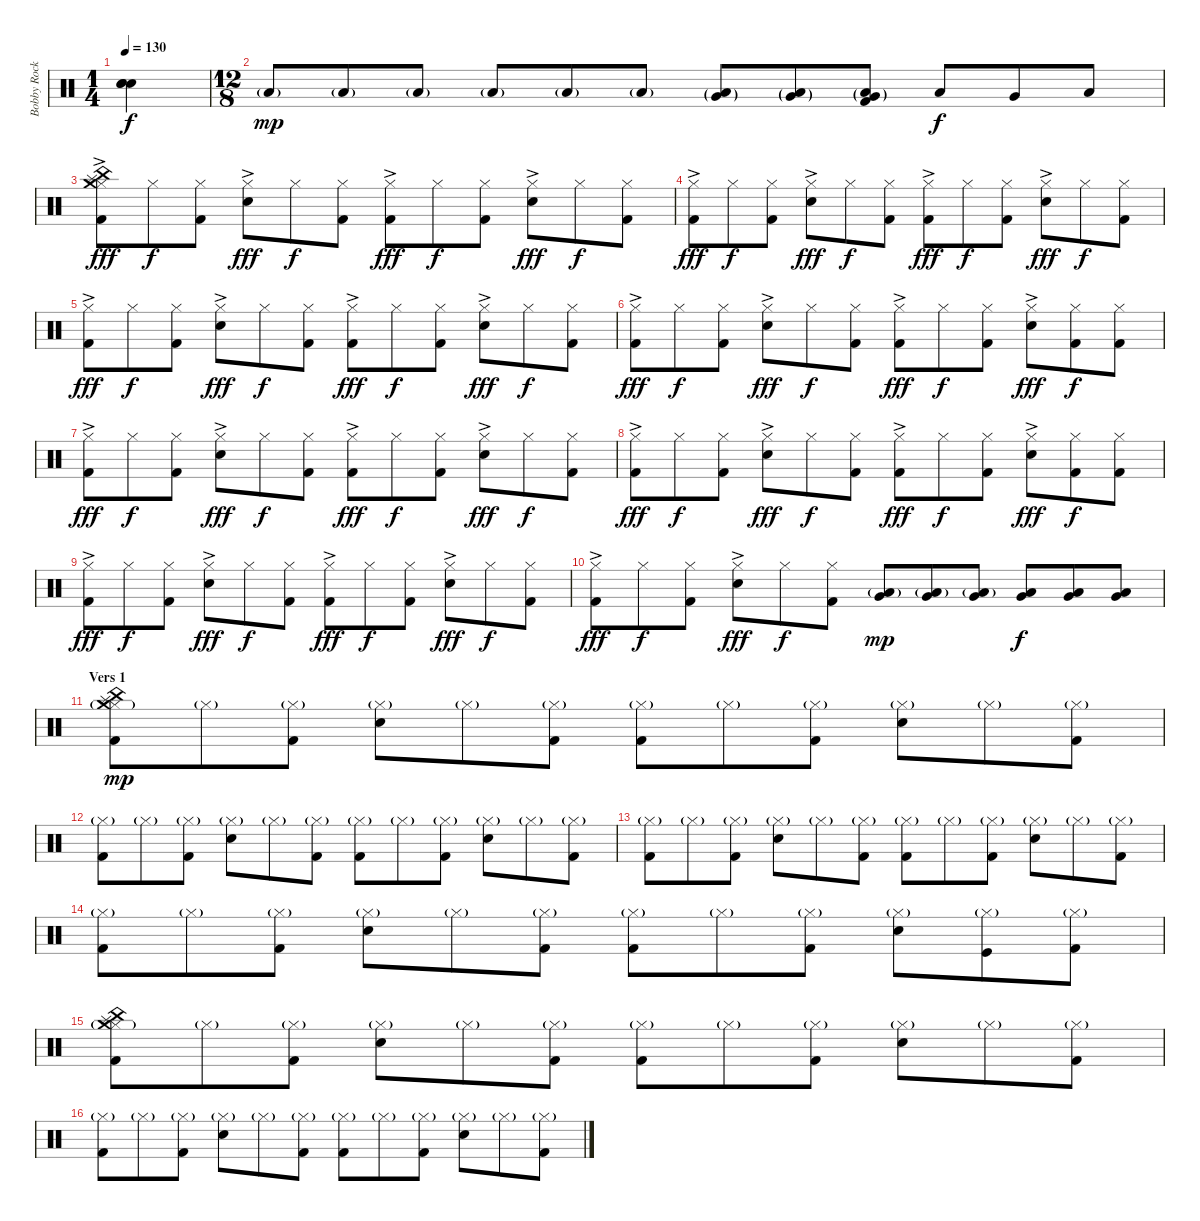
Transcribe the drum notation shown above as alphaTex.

\track ("Bobby Rock - drums" "Bobby Rock") {instrument percussion}
\staff {score}
\articulation defaults
\ts (1 4)
\tempo 130
\clef neutral
\ks c
("Snare (hit)"{x} "Snare (hit)"{x} "Snare (hit)"{x}).4{dy f volume 3} |
\ts (12 8)
"Low Floor Tom (hit)"{g}.8{dy mp volume 13} "Low Floor Tom (hit)"{g}.8 "Low Floor Tom (hit)"{g}.8 "Low Floor Tom (hit)"{g}.8 "Low Floor Tom (hit)"{g}.8 "Low Floor Tom (hit)"{g}.8 ("Very Low Tom (hit)"{g} "Low Floor Tom (hit)"{g}).8 ("Very Low Tom (hit)"{g} "Low Floor Tom (hit)"{g}).8 ("Very Low Tom (hit)"{g} "Low Floor Tom (hit)"{g} "Kick (hit) 2").8 "Low Tom (hit)".8{dy f} "Very Low Tom (hit)".8 "Low Floor Tom (hit)".8 |
("Hi-Hat (closed)"{ac} "China (hit)" "Splash (hit)" "Crash medium (hit)" "Kick (hit) 2").8{dy fff} "Hi-Hat (closed)".8{dy f} ("Hi-Hat (closed)" "Kick (hit) 2").8 ("Hi-Hat (closed)"{ac} "Snare (hit) 2").8{dy fff} "Hi-Hat (closed)".8{dy f} ("Hi-Hat (closed)" "Kick (hit) 2").8 ("Hi-Hat (closed)"{ac} "Kick (hit) 2").8{dy fff} "Hi-Hat (closed)".8{dy f} ("Hi-Hat (closed)" "Kick (hit) 2").8 ("Hi-Hat (closed)"{ac} "Snare (hit) 2").8{dy fff} "Hi-Hat (closed)".8{dy f} ("Hi-Hat (closed)" "Kick (hit) 2").8 |
("Hi-Hat (closed)"{ac} "Kick (hit) 2").8{dy fff} "Hi-Hat (closed)".8{dy f} ("Hi-Hat (closed)" "Kick (hit) 2").8 ("Hi-Hat (closed)"{ac} "Snare (hit) 2").8{dy fff} "Hi-Hat (closed)".8{dy f} ("Hi-Hat (closed)" "Kick (hit) 2").8 ("Hi-Hat (closed)"{ac} "Kick (hit) 2").8{dy fff} "Hi-Hat (closed)".8{dy f} ("Hi-Hat (closed)" "Kick (hit) 2").8 ("Hi-Hat (closed)"{ac} "Snare (hit) 2").8{dy fff} "Hi-Hat (closed)".8{dy f} ("Hi-Hat (closed)" "Kick (hit) 2").8 |
("Hi-Hat (closed)"{ac} "Kick (hit) 2").8{dy fff} "Hi-Hat (closed)".8{dy f} ("Hi-Hat (closed)" "Kick (hit) 2").8 ("Hi-Hat (closed)"{ac} "Snare (hit) 2").8{dy fff} "Hi-Hat (closed)".8{dy f} ("Hi-Hat (closed)" "Kick (hit) 2").8 ("Hi-Hat (closed)"{ac} "Kick (hit) 2").8{dy fff} "Hi-Hat (closed)".8{dy f} ("Hi-Hat (closed)" "Kick (hit) 2").8 ("Hi-Hat (closed)"{ac} "Snare (hit) 2").8{dy fff} "Hi-Hat (closed)".8{dy f} ("Hi-Hat (closed)" "Kick (hit) 2").8 |
("Hi-Hat (closed)"{ac} "Kick (hit) 2").8{dy fff} "Hi-Hat (closed)".8{dy f} ("Hi-Hat (closed)" "Kick (hit) 2").8 ("Hi-Hat (closed)"{ac} "Snare (hit) 2").8{dy fff} "Hi-Hat (closed)".8{dy f} ("Hi-Hat (closed)" "Kick (hit) 2").8 ("Hi-Hat (closed)"{ac} "Kick (hit) 2").8{dy fff} "Hi-Hat (closed)".8{dy f} ("Hi-Hat (closed)" "Kick (hit) 2").8 ("Hi-Hat (closed)"{ac} "Snare (hit) 2").8{dy fff} ("Hi-Hat (closed)" "Kick (hit) 2").8{dy f} ("Hi-Hat (closed)" "Kick (hit) 2").8 |
("Hi-Hat (closed)"{ac} "Kick (hit) 2").8{dy fff} "Hi-Hat (closed)".8{dy f} ("Hi-Hat (closed)" "Kick (hit) 2").8 ("Hi-Hat (closed)"{ac} "Snare (hit) 2").8{dy fff} "Hi-Hat (closed)".8{dy f} ("Hi-Hat (closed)" "Kick (hit) 2").8 ("Hi-Hat (closed)"{ac} "Kick (hit) 2").8{dy fff} "Hi-Hat (closed)".8{dy f} ("Hi-Hat (closed)" "Kick (hit) 2").8 ("Hi-Hat (closed)"{ac} "Snare (hit) 2").8{dy fff} "Hi-Hat (closed)".8{dy f} ("Hi-Hat (closed)" "Kick (hit) 2").8 |
("Hi-Hat (closed)"{ac} "Kick (hit) 2").8{dy fff} "Hi-Hat (closed)".8{dy f} ("Hi-Hat (closed)" "Kick (hit) 2").8 ("Hi-Hat (closed)"{ac} "Snare (hit) 2").8{dy fff} "Hi-Hat (closed)".8{dy f} ("Hi-Hat (closed)" "Kick (hit) 2").8 ("Hi-Hat (closed)"{ac} "Kick (hit) 2").8{dy fff} "Hi-Hat (closed)".8{dy f} ("Hi-Hat (closed)" "Kick (hit) 2").8 ("Hi-Hat (closed)"{ac} "Snare (hit) 2").8{dy fff} ("Hi-Hat (closed)" "Kick (hit) 2").8{dy f} ("Hi-Hat (closed)" "Kick (hit) 2").8 |
("Hi-Hat (closed)"{ac} "Kick (hit) 2").8{dy fff} "Hi-Hat (closed)".8{dy f} ("Hi-Hat (closed)" "Kick (hit) 2").8 ("Hi-Hat (closed)"{ac} "Snare (hit) 2").8{dy fff} "Hi-Hat (closed)".8{dy f} ("Hi-Hat (closed)" "Kick (hit) 2").8 ("Hi-Hat (closed)"{ac} "Kick (hit) 2").8{dy fff} "Hi-Hat (closed)".8{dy f} ("Hi-Hat (closed)" "Kick (hit) 2").8 ("Hi-Hat (closed)"{ac} "Snare (hit) 2").8{dy fff} "Hi-Hat (closed)".8{dy f} ("Hi-Hat (closed)" "Kick (hit) 2").8 |
("Hi-Hat (closed)"{ac} "Kick (hit) 2").8{dy fff} "Hi-Hat (closed)".8{dy f} ("Hi-Hat (closed)" "Kick (hit) 2").8 ("Hi-Hat (closed)"{ac} "Snare (hit) 2").8{dy fff} "Hi-Hat (closed)".8{dy f} ("Hi-Hat (closed)" "Kick (hit) 2").8 ("Very Low Tom (hit)" "Low Floor Tom (hit)"{g}).8{dy mp} ("Very Low Tom (hit)" "Low Floor Tom (hit)"{g}).8 ("Very Low Tom (hit)" "Low Floor Tom (hit)"{g}).8 ("Very Low Tom (hit)" "Low Floor Tom (hit)").8{dy f} ("Very Low Tom (hit)" "Low Floor Tom (hit)").8 ("Very Low Tom (hit)" "Low Floor Tom (hit)").8 |
\section ("" "Vers 1")
("Hi-Hat (closed)"{g} "Splash (hit)" "Crash medium (hit)" "China (hit)" "Kick (hit) 2").8{dy mp} "Hi-Hat (closed)"{g}.8 ("Hi-Hat (closed)"{g} "Kick (hit) 2").8 ("Hi-Hat (closed)"{g} "Snare (hit) 2").8 "Hi-Hat (closed)"{g}.8 ("Hi-Hat (closed)"{g} "Kick (hit) 2").8 ("Hi-Hat (closed)"{g} "Kick (hit) 2").8 "Hi-Hat (closed)"{g}.8 ("Hi-Hat (closed)"{g} "Kick (hit) 2").8 ("Hi-Hat (closed)"{g} "Snare (hit) 2").8 "Hi-Hat (closed)"{g}.8 ("Hi-Hat (closed)"{g} "Kick (hit) 2").8 |
("Hi-Hat (closed)"{g} "Kick (hit) 2").8 "Hi-Hat (closed)"{g}.8 ("Hi-Hat (closed)"{g} "Kick (hit) 2").8 ("Hi-Hat (closed)"{g} "Snare (hit) 2").8 "Hi-Hat (closed)"{g}.8 ("Hi-Hat (closed)"{g} "Kick (hit) 2").8 ("Hi-Hat (closed)"{g} "Kick (hit) 2").8 "Hi-Hat (closed)"{g}.8 ("Hi-Hat (closed)"{g} "Kick (hit) 2").8 ("Hi-Hat (closed)"{g} "Snare (hit) 2").8 "Hi-Hat (closed)"{g}.8 ("Hi-Hat (closed)"{g} "Kick (hit) 2").8 |
("Hi-Hat (closed)"{g} "Kick (hit) 2").8 "Hi-Hat (closed)"{g}.8 ("Hi-Hat (closed)"{g} "Kick (hit) 2").8 ("Hi-Hat (closed)"{g} "Snare (hit) 2").8 "Hi-Hat (closed)"{g}.8 ("Hi-Hat (closed)"{g} "Kick (hit) 2").8 ("Hi-Hat (closed)"{g} "Kick (hit) 2").8 "Hi-Hat (closed)"{g}.8 ("Hi-Hat (closed)"{g} "Kick (hit) 2").8 ("Hi-Hat (closed)"{g} "Snare (hit) 2").8 "Hi-Hat (closed)"{g}.8 ("Hi-Hat (closed)"{g} "Kick (hit) 2").8 |
("Hi-Hat (closed)"{g} "Kick (hit) 2").8 "Hi-Hat (closed)"{g}.8 ("Hi-Hat (closed)"{g} "Kick (hit) 2").8 ("Hi-Hat (closed)"{g} "Snare (hit) 2").8 "Hi-Hat (closed)"{g}.8 ("Hi-Hat (closed)"{g} "Kick (hit) 2").8 ("Hi-Hat (closed)"{g} "Kick (hit) 2").8 "Hi-Hat (closed)"{g}.8 ("Hi-Hat (closed)"{g} "Kick (hit) 2").8 ("Hi-Hat (closed)"{g} "Snare (hit) 2").8 ("Hi-Hat (closed)"{g} "Kick (hit)").8 ("Hi-Hat (closed)"{g} "Kick (hit) 2").8 |
("Hi-Hat (closed)"{g} "Splash (hit)" "Crash medium (hit)" "China (hit)" "Kick (hit) 2").8 "Hi-Hat (closed)"{g}.8 ("Hi-Hat (closed)"{g} "Kick (hit) 2").8 ("Hi-Hat (closed)"{g} "Snare (hit) 2").8 "Hi-Hat (closed)"{g}.8 ("Hi-Hat (closed)"{g} "Kick (hit) 2").8 ("Hi-Hat (closed)"{g} "Kick (hit) 2").8 "Hi-Hat (closed)"{g}.8 ("Hi-Hat (closed)"{g} "Kick (hit) 2").8 ("Hi-Hat (closed)"{g} "Snare (hit) 2").8 "Hi-Hat (closed)"{g}.8 ("Hi-Hat (closed)"{g} "Kick (hit) 2").8 |
("Hi-Hat (closed)"{g} "Kick (hit) 2").8 "Hi-Hat (closed)"{g}.8 ("Hi-Hat (closed)"{g} "Kick (hit) 2").8 ("Hi-Hat (closed)"{g} "Snare (hit) 2").8 "Hi-Hat (closed)"{g}.8 ("Hi-Hat (closed)"{g} "Kick (hit) 2").8 ("Hi-Hat (closed)"{g} "Kick (hit) 2").8 "Hi-Hat (closed)"{g}.8 ("Hi-Hat (closed)"{g} "Kick (hit) 2").8 ("Hi-Hat (closed)"{g} "Snare (hit) 2").8 "Hi-Hat (closed)"{g}.8 ("Hi-Hat (closed)"{g} "Kick (hit) 2").8
